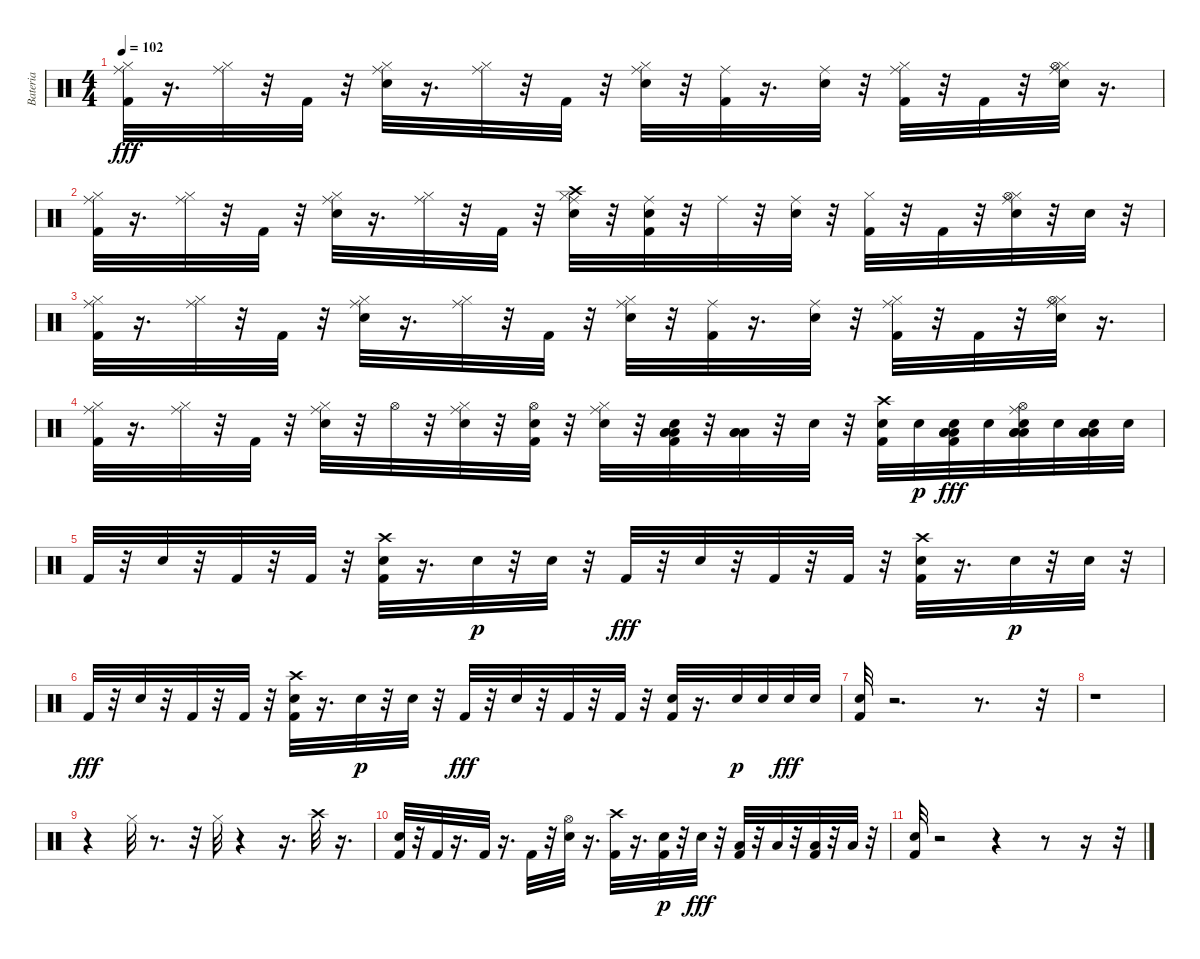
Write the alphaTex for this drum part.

\track ("Bateria" "Bateria") {instrument percussion}
\staff {score}
\articulation defaults
\ts (4 4)
\tempo 102
\clef neutral
\ks c
("Kick (hit) 2" "Hi-Hat (closed)" "Ride (middle)").32{dy fff} r.16{d} ("Hi-Hat (closed)" "Ride (middle)").32 r.32 "Kick (hit) 2".32 r.32 ("Snare (hit) 2" "Hi-Hat (closed)" "Ride (middle)").32 r.16{d} ("Hi-Hat (closed)" "Ride (middle)").32 r.32 "Kick (hit) 2".32 r.32 ("Snare (hit) 2" "Hi-Hat (closed)" "Ride (middle)").32 r.32 ("Kick (hit) 2" "Ride (middle)").32 r.16{d} ("Snare (hit) 2" "Ride (middle)").32 r.32 ("Kick (hit) 2" "Hi-Hat (closed)" "Ride (middle)").32 r.32 "Kick (hit) 2".32 r.32 ("Snare (hit) 2" "Hi-Hat (closed)" "Hi-Hat (open)" "Ride (middle)").32 r.16{d} |
("Kick (hit) 2" "Hi-Hat (closed)" "Ride (middle)").32 r.16{d} ("Hi-Hat (closed)" "Ride (middle)").32 r.32 "Kick (hit) 2".32 r.32 ("Snare (hit) 2" "Hi-Hat (closed)" "Ride (middle)").32 r.16{d} ("Hi-Hat (closed)" "Ride (middle)").32 r.32 "Kick (hit) 2".32 r.32 ("Snare (hit) 2" "Hi-Hat (closed)" "Crash high (hit)" "Ride (middle)").32 r.32 ("Kick (hit) 2" "Snare (hit) 2" "Ride (middle)").32 r.32 "Ride (middle)".32 r.32 ("Snare (hit) 2" "Ride (middle)").32 r.32 ("Kick (hit) 2" "Hi-Hat (closed)").32 r.32 "Kick (hit) 2".32 r.32 ("Snare (hit) 2" "Hi-Hat (closed)" "Hi-Hat (open)" "Ride (middle)").32 r.32 "Snare (hit) 2".32 r.32 |
("Kick (hit) 2" "Hi-Hat (closed)" "Ride (middle)").32 r.16{d} ("Hi-Hat (closed)" "Ride (middle)").32 r.32 "Kick (hit) 2".32 r.32 ("Snare (hit) 2" "Hi-Hat (closed)" "Ride (middle)").32 r.16{d} ("Hi-Hat (closed)" "Ride (middle)").32 r.32 "Kick (hit) 2".32 r.32 ("Snare (hit) 2" "Hi-Hat (closed)" "Ride (middle)").32 r.32 ("Kick (hit) 2" "Ride (middle)").32 r.16{d} ("Snare (hit) 2" "Ride (middle)").32 r.32 ("Kick (hit) 2" "Hi-Hat (closed)" "Ride (middle)").32 r.32 "Kick (hit) 2".32 r.32 ("Snare (hit) 2" "Hi-Hat (closed)" "Hi-Hat (open)" "Ride (middle)").32 r.16{d} |
("Kick (hit) 2" "Hi-Hat (closed)" "Ride (middle)").32 r.16{d} ("Hi-Hat (closed)" "Ride (middle)").32 r.32 "Kick (hit) 2".32 r.32 ("Snare (hit) 2" "Hi-Hat (closed)" "Ride (middle)").32 r.32 "Hi-Hat (open)".32 r.32 ("Snare (hit) 2" "Hi-Hat (closed)" "Ride (middle)").32 r.32 ("Kick (hit) 2" "Snare (hit) 2" "Hi-Hat (open)").32 r.32 ("Snare (hit) 2" "Hi-Hat (closed)" "Ride (middle)").32 r.32 ("Kick (hit) 2" "Snare (hit) 2" "Low Tom (hit)" "Low Tom (hit)" "Low Tom (hit)").32 r.32 ("Low Floor Tom (hit)" "Low Floor Tom (hit)" "Low Floor Tom (hit)").32 r.32 "Snare (hit) 2".32 r.32 ("Kick (hit) 2" "Snare (hit) 2" "Crash high (hit)").32 "Snare (hit) 2".32{dy p} ("Kick (hit) 2" "Snare (hit) 2" "Low Tom (hit)" "Low Tom (hit)" "Low Tom (hit)").32{dy fff} "Snare (hit) 2".32 ("Snare (hit) 2" "Low Floor Tom (hit)" "Low Floor Tom (hit)" "Low Floor Tom (hit)" "Hi-Hat (open)" "Ride (middle)").32 "Snare (hit) 2".32 ("Snare (hit) 2" "Low Floor Tom (hit)" "Low Floor Tom (hit)" "Low Floor Tom (hit)").32 "Snare (hit) 2".32 |
"Kick (hit) 2".32 r.32 "Snare (hit) 2".32 r.32 "Kick (hit) 2".32 r.32 "Kick (hit) 2".32 r.32 ("Kick (hit) 2" "Snare (hit) 2" "Crash high (hit)").32 r.16{d} "Snare (hit) 2".32{dy p} r.32 "Snare (hit) 2".32 r.32 "Kick (hit) 2".32{dy fff} r.32 "Snare (hit) 2".32 r.32 "Kick (hit) 2".32 r.32 "Kick (hit) 2".32 r.32 ("Kick (hit) 2" "Snare (hit) 2" "Crash high (hit)").32 r.16{d} "Snare (hit) 2".32{dy p} r.32 "Snare (hit) 2".32 r.32 |
"Kick (hit) 2".32{dy fff} r.32 "Snare (hit) 2".32 r.32 "Kick (hit) 2".32 r.32 "Kick (hit) 2".32 r.32 ("Kick (hit) 2" "Snare (hit) 2" "Crash high (hit)").32 r.16{d} "Snare (hit) 2".32{dy p} r.32 "Snare (hit) 2".32 r.32 "Kick (hit) 2".32{dy fff} r.32 "Snare (hit) 2".32 r.32 "Kick (hit) 2".32 r.32 "Kick (hit) 2".32 r.32 ("Kick (hit) 2" "Snare (hit) 2").32 r.16{d} "Snare (hit) 2".32{dy p} "Snare (hit) 2".32 "Snare (hit) 2".32{dy fff} "Snare (hit) 2".32 |
("Kick (hit) 2" "Snare (hit) 2").32 r.2{d} r.8{d} r.32 |
r.1 |
r.4 "Hi-Hat (closed)".32 r.8{d} r.32 "Hi-Hat (closed)".32 r.4 r.16{d} "Crash high (hit)".32 r.16{d} |
("Kick (hit) 2" "Snare (hit) 2").32 r.32 "Kick (hit) 2".32 r.16{d} "Kick (hit) 2".32 r.16{d} "Kick (hit) 2".32 r.32 ("Snare (hit) 2" "Hi-Hat (open)").32 r.16{d} ("Kick (hit) 2" "Crash high (hit)").32 r.16{d} ("Kick (hit) 2" "Snare (hit) 2").32{dy p} r.32 "Snare (hit) 2".32{dy fff} r.32 ("Kick (hit) 2" "Low Tom (hit)").32 r.32 "Low Tom (hit)".32 r.32 ("Kick (hit) 2" "Low Floor Tom (hit)").32 r.32 "Low Floor Tom (hit)".32 r.32 |
("Kick (hit) 2" "Snare (hit) 2").32 r.2 r.4 r.8 r.16 r.32
